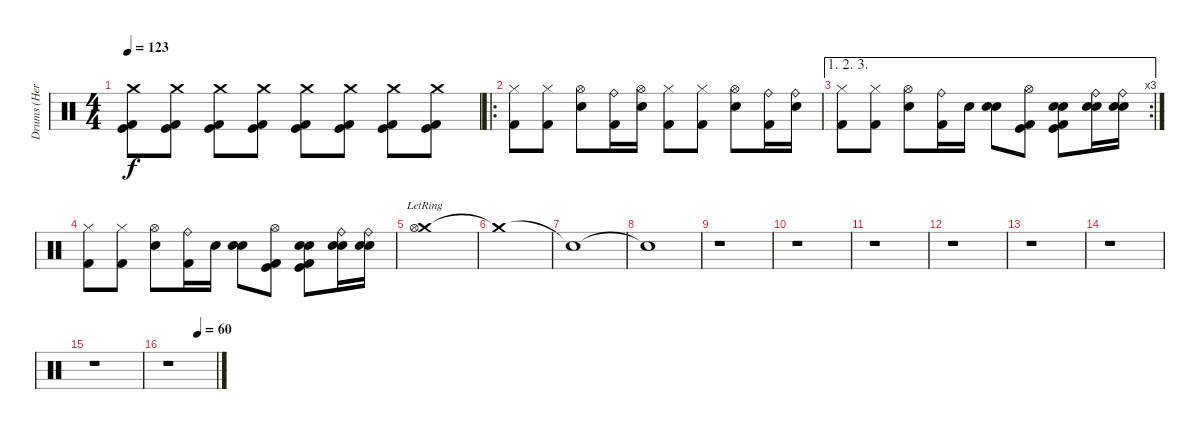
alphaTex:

\track ("Drums (Hervé)" "Drums (Her") {instrument percussion}
\staff {score}
\articulation defaults
\ts (4 4)
\tempo 123
\clef neutral
\ks c
("Crash medium (hit)" "Kick (hit)" "Kick (hit) 2").8{dy f} ("Crash medium (hit)" "Kick (hit)" "Kick (hit) 2").8 ("Crash medium (hit)" "Kick (hit)" "Kick (hit) 2").8 ("Crash medium (hit)" "Kick (hit)" "Kick (hit) 2").8 ("Crash medium (hit)" "Kick (hit)" "Kick (hit) 2").8 ("Crash medium (hit)" "Kick (hit)" "Kick (hit) 2").8 ("Crash medium (hit)" "Kick (hit)" "Kick (hit) 2").8 ("Crash medium (hit)" "Kick (hit)" "Kick (hit) 2").8 |
\ro
("Hi-Hat (closed)" "Kick (hit) 2").8 ("Hi-Hat (closed)" "Kick (hit) 2").8 ("Hi-Hat (open)" "Snare (hit) 2").8 ("Ride (bell)" "Kick (hit) 2").16 ("Hi-Hat (open)" "Electric Snare (hit)").16 ("Hi-Hat (closed)" "Kick (hit) 2").8 ("Hi-Hat (closed)" "Kick (hit) 2").8 ("Hi-Hat (open)" "Snare (hit) 2").8 ("Ride (bell)" "Kick (hit) 2").16 ("Ride (bell)" "Electric Snare (hit)").16 |
\ae (1 2 3)
\rc 3
("Hi-Hat (closed)" "Kick (hit) 2").8 ("Hi-Hat (closed)" "Kick (hit) 2").8 ("Hi-Hat (open)" "Snare (hit) 2").8 ("Ride (bell)" "Kick (hit) 2").16 "Electric Snare (hit)".16 ("Electric Snare (hit)" "Electric Snare (hit)").8 ("Hi-Hat (open)" "Kick (hit)" "Kick (hit) 2").8 ("Electric Snare (hit)" "Electric Snare (hit)" "Kick (hit)" "Kick (hit) 2").8 ("Ride (bell)" "Snare (hit) 2" "Snare (hit) 2").16 ("Ride (bell)" "Snare (hit) 2" "Snare (hit) 2").16 |
("Hi-Hat (closed)" "Kick (hit) 2").8 ("Hi-Hat (closed)" "Kick (hit) 2").8 ("Hi-Hat (open)" "Snare (hit) 2").8 ("Ride (bell)" "Kick (hit) 2").16 "Electric Snare (hit)".16 ("Electric Snare (hit)" "Electric Snare (hit)").8 ("Hi-Hat (open)" "Kick (hit)" "Kick (hit) 2").8 ("Electric Snare (hit)" "Electric Snare (hit)" "Kick (hit)" "Kick (hit) 2").8 ("Ride (bell)" "Snare (hit) 2" "Snare (hit) 2").16 ("Ride (bell)" "Snare (hit) 2" "Snare (hit) 2").16 |
("Crash medium (hit)"{lr} "Hi-Hat (open)").1 |
"Crash medium (hit)"{t}.1 |
"Snare (hit)"{t}.1 |
"Snare (hit)"{t}.1 |
r.1 |
r.1 |
r.1 |
r.1 |
r.1 |
r.1 |
r.1 |
\tempo (60 0.625)
r.1
